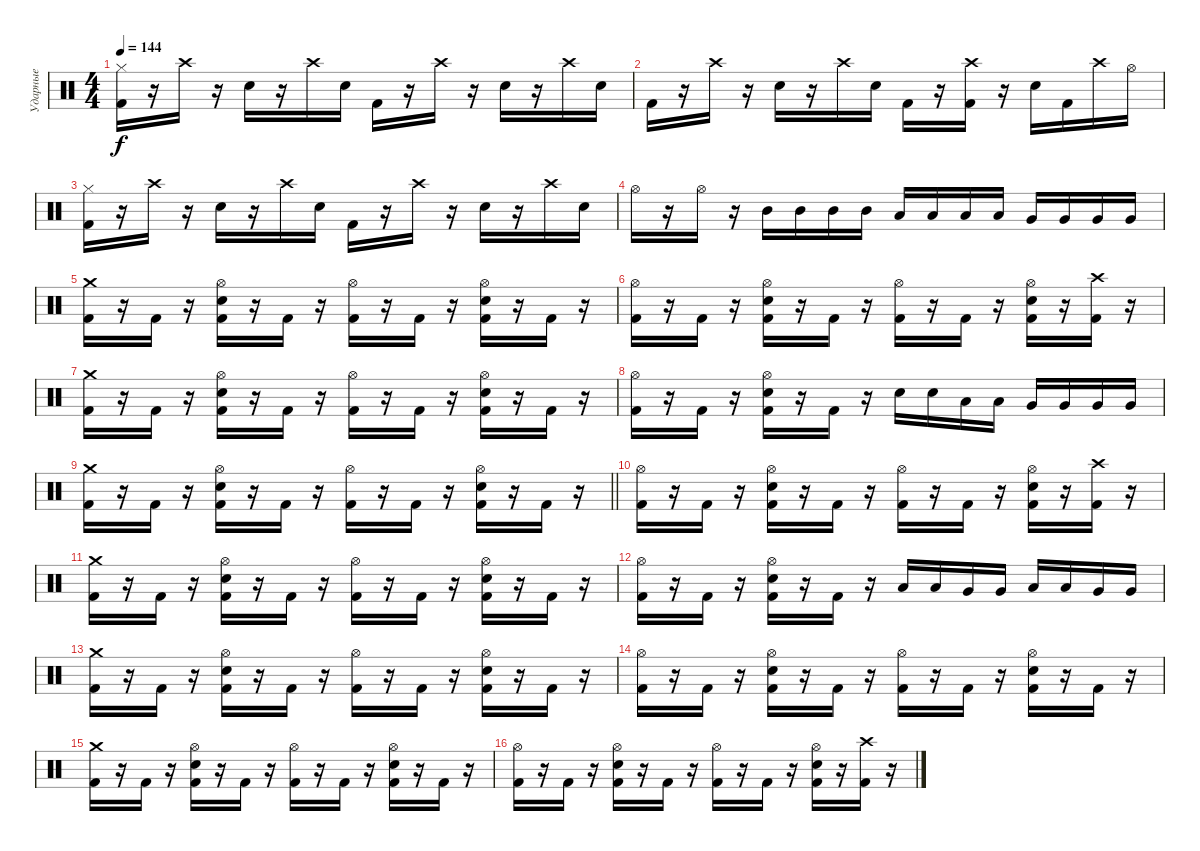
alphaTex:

\track ("Ударные" "Ударные") {instrument percussion}
\staff {score}
\articulation defaults
\ts (4 4)
\tempo 144
\clef neutral
\ks c
("Hi-Hat (closed)" "Kick (hit) 2").16{dy f} r.16 "Crash high (hit)".16 r.16 "Electric Snare (hit)".16 r.16 "Crash high (hit)".16 "Electric Snare (hit)".16 "Kick (hit) 2".16 r.16 "Crash high (hit)".16 r.16 "Electric Snare (hit)".16 r.16 "Crash high (hit)".16 "Electric Snare (hit)".16 |
"Kick (hit) 2".16 r.16 "Crash high (hit)".16 r.16 "Electric Snare (hit)".16 r.16 "Crash high (hit)".16 "Electric Snare (hit)".16 "Kick (hit) 2".16 r.16 ("Crash high (hit)" "Kick (hit) 2").16 r.16 "Electric Snare (hit)".16 "Kick (hit) 2".16 "Crash high (hit)".16 "Hi-Hat (open)".16 |
("Hi-Hat (closed)" "Kick (hit) 2").16 r.16 "Crash high (hit)".16 r.16 "Electric Snare (hit)".16 r.16 "Crash high (hit)".16 "Electric Snare (hit)".16 "Kick (hit) 2".16 r.16 "Crash high (hit)".16 r.16 "Electric Snare (hit)".16 r.16 "Crash high (hit)".16 "Electric Snare (hit)".16 |
"Hi-Hat (open)".16 r.16 "Hi-Hat (open)".16 r.16 "Mid Tom (hit)".16 "Mid Tom (hit)".16 "Mid Tom (hit)".16 "Mid Tom (hit)".16 "Low Tom (hit)".16 "Low Tom (hit)".16 "Low Tom (hit)".16 "Low Tom (hit)".16 "Very Low Tom (hit)".16 "Very Low Tom (hit)".16 "Very Low Tom (hit)".16 "Very Low Tom (hit)".16 |
("Crash medium (hit)" "Kick (hit) 2").16 r.16 "Kick (hit) 2".16 r.16 ("Hi-Hat (open)" "Electric Snare (hit)" "Kick (hit) 2").16 r.16 "Kick (hit) 2".16 r.16 ("Hi-Hat (open)" "Kick (hit) 2").16 r.16 "Kick (hit) 2".16 r.16 ("Hi-Hat (open)" "Electric Snare (hit)" "Kick (hit) 2").16 r.16 "Kick (hit) 2".16 r.16 |
("Hi-Hat (open)" "Kick (hit) 2").16 r.16 "Kick (hit) 2".16 r.16 ("Hi-Hat (open)" "Electric Snare (hit)" "Kick (hit) 2").16 r.16 "Kick (hit) 2".16 r.16 ("Hi-Hat (open)" "Kick (hit) 2").16 r.16 "Kick (hit) 2".16 r.16 ("Hi-Hat (open)" "Electric Snare (hit)" "Kick (hit) 2").16 r.16 ("Crash high (hit)" "Kick (hit) 2").16 r.16 |
("Crash medium (hit)" "Kick (hit) 2").16 r.16 "Kick (hit) 2".16 r.16 ("Hi-Hat (open)" "Electric Snare (hit)" "Kick (hit) 2").16 r.16 "Kick (hit) 2".16 r.16 ("Hi-Hat (open)" "Kick (hit) 2").16 r.16 "Kick (hit) 2".16 r.16 ("Hi-Hat (open)" "Electric Snare (hit)" "Kick (hit) 2").16 r.16 "Kick (hit) 2".16 r.16 |
("Hi-Hat (open)" "Kick (hit) 2").16 r.16 "Kick (hit) 2".16 r.16 ("Hi-Hat (open)" "Electric Snare (hit)" "Kick (hit) 2").16 r.16 "Kick (hit) 2".16 r.16 "Electric Snare (hit)".16 "Electric Snare (hit)".16 "Low Tom (hit)".16 "Low Tom (hit)".16 "Very Low Tom (hit)".16 "Very Low Tom (hit)".16 "Very Low Tom (hit)".16 "Very Low Tom (hit)".16 |
\barLineRight lightlight
("Crash medium (hit)" "Kick (hit) 2").16 r.16 "Kick (hit) 2".16 r.16 ("Hi-Hat (open)" "Electric Snare (hit)" "Kick (hit) 2").16 r.16 "Kick (hit) 2".16 r.16 ("Hi-Hat (open)" "Kick (hit) 2").16 r.16 "Kick (hit) 2".16 r.16 ("Hi-Hat (open)" "Electric Snare (hit)" "Kick (hit) 2").16 r.16 "Kick (hit) 2".16 r.16 |
("Hi-Hat (open)" "Kick (hit) 2").16 r.16 "Kick (hit) 2".16 r.16 ("Hi-Hat (open)" "Electric Snare (hit)" "Kick (hit) 2").16 r.16 "Kick (hit) 2".16 r.16 ("Hi-Hat (open)" "Kick (hit) 2").16 r.16 "Kick (hit) 2".16 r.16 ("Hi-Hat (open)" "Electric Snare (hit)" "Kick (hit) 2").16 r.16 ("Crash high (hit)" "Kick (hit) 2").16 r.16 |
("Crash medium (hit)" "Kick (hit) 2").16 r.16 "Kick (hit) 2".16 r.16 ("Hi-Hat (open)" "Electric Snare (hit)" "Kick (hit) 2").16 r.16 "Kick (hit) 2".16 r.16 ("Hi-Hat (open)" "Kick (hit) 2").16 r.16 "Kick (hit) 2".16 r.16 ("Hi-Hat (open)" "Electric Snare (hit)" "Kick (hit) 2").16 r.16 "Kick (hit) 2".16 r.16 |
("Hi-Hat (open)" "Kick (hit) 2").16 r.16 "Kick (hit) 2".16 r.16 ("Hi-Hat (open)" "Electric Snare (hit)" "Kick (hit) 2").16 r.16 "Kick (hit) 2".16 r.16 "Low Tom (hit)".16 "Low Tom (hit)".16 "Very Low Tom (hit)".16 "Very Low Tom (hit)".16 "Low Tom (hit)".16 "Low Tom (hit)".16 "Very Low Tom (hit)".16 "Very Low Tom (hit)".16 |
("Crash medium (hit)" "Kick (hit) 2").16 r.16 "Kick (hit) 2".16 r.16 ("Hi-Hat (open)" "Electric Snare (hit)" "Kick (hit) 2").16 r.16 "Kick (hit) 2".16 r.16 ("Hi-Hat (open)" "Kick (hit) 2").16 r.16 "Kick (hit) 2".16 r.16 ("Hi-Hat (open)" "Electric Snare (hit)" "Kick (hit) 2").16 r.16 "Kick (hit) 2".16 r.16 |
("Hi-Hat (open)" "Kick (hit) 2").16 r.16 "Kick (hit) 2".16 r.16 ("Hi-Hat (open)" "Electric Snare (hit)" "Kick (hit) 2").16 r.16 "Kick (hit) 2".16 r.16 ("Hi-Hat (open)" "Kick (hit) 2").16 r.16 "Kick (hit) 2".16 r.16 ("Hi-Hat (open)" "Electric Snare (hit)" "Kick (hit) 2").16 r.16 "Kick (hit) 2".16 r.16 |
("Crash medium (hit)" "Kick (hit) 2").16 r.16 "Kick (hit) 2".16 r.16 ("Hi-Hat (open)" "Electric Snare (hit)" "Kick (hit) 2").16 r.16 "Kick (hit) 2".16 r.16 ("Hi-Hat (open)" "Kick (hit) 2").16 r.16 "Kick (hit) 2".16 r.16 ("Hi-Hat (open)" "Electric Snare (hit)" "Kick (hit) 2").16 r.16 "Kick (hit) 2".16 r.16 |
("Hi-Hat (open)" "Kick (hit) 2").16 r.16 "Kick (hit) 2".16 r.16 ("Hi-Hat (open)" "Electric Snare (hit)" "Kick (hit) 2").16 r.16 "Kick (hit) 2".16 r.16 ("Hi-Hat (open)" "Kick (hit) 2").16 r.16 "Kick (hit) 2".16 r.16 ("Hi-Hat (open)" "Electric Snare (hit)" "Kick (hit) 2").16 r.16 ("Crash high (hit)" "Kick (hit) 2").16 r.16
